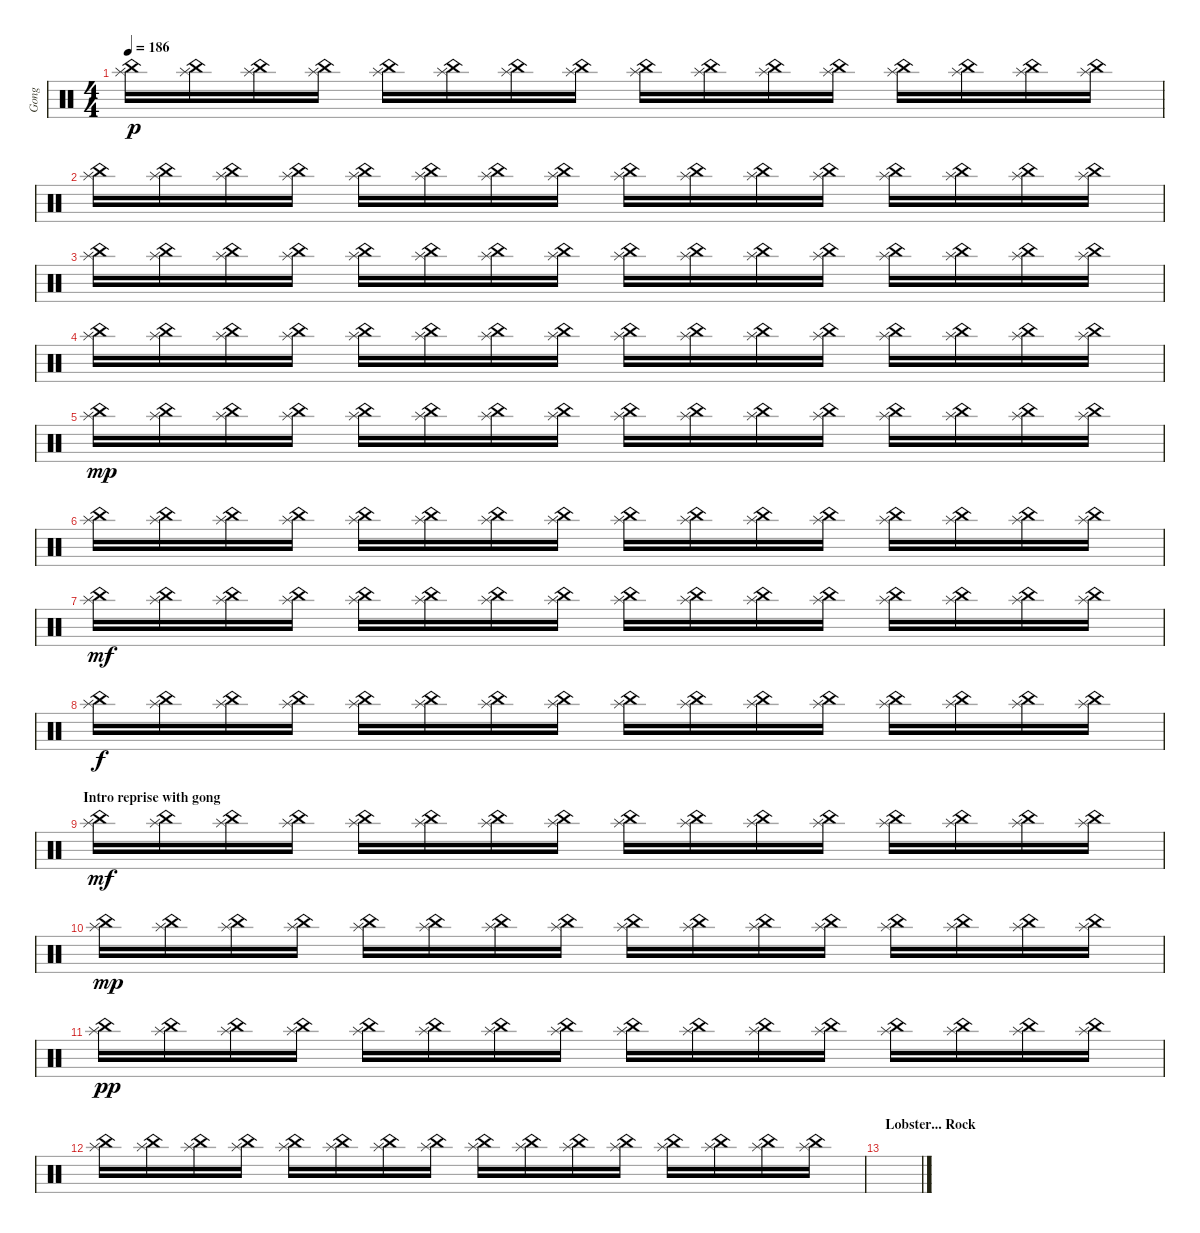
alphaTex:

\track ("Gong" "Gong") {instrument percussion}
\staff {score}
\articulation defaults
\ts (4 4)
\tempo 186
\clef neutral
\ks c
("China (hit)" "Splash (hit)").16{dy p} ("China (hit)" "Splash (hit)").16 ("China (hit)" "Splash (hit)").16 ("China (hit)" "Splash (hit)").16 ("China (hit)" "Splash (hit)").16 ("China (hit)" "Splash (hit)").16 ("China (hit)" "Splash (hit)").16 ("China (hit)" "Splash (hit)").16 ("China (hit)" "Splash (hit)").16 ("China (hit)" "Splash (hit)").16 ("China (hit)" "Splash (hit)").16 ("China (hit)" "Splash (hit)").16 ("China (hit)" "Splash (hit)").16 ("China (hit)" "Splash (hit)").16 ("China (hit)" "Splash (hit)").16 ("China (hit)" "Splash (hit)").16 |
("China (hit)" "Splash (hit)").16 ("China (hit)" "Splash (hit)").16 ("China (hit)" "Splash (hit)").16 ("China (hit)" "Splash (hit)").16 ("China (hit)" "Splash (hit)").16 ("China (hit)" "Splash (hit)").16 ("China (hit)" "Splash (hit)").16 ("China (hit)" "Splash (hit)").16 ("China (hit)" "Splash (hit)").16 ("China (hit)" "Splash (hit)").16 ("China (hit)" "Splash (hit)").16 ("China (hit)" "Splash (hit)").16 ("China (hit)" "Splash (hit)").16 ("China (hit)" "Splash (hit)").16 ("China (hit)" "Splash (hit)").16 ("China (hit)" "Splash (hit)").16 |
("China (hit)" "Splash (hit)").16 ("China (hit)" "Splash (hit)").16 ("China (hit)" "Splash (hit)").16 ("China (hit)" "Splash (hit)").16 ("China (hit)" "Splash (hit)").16 ("China (hit)" "Splash (hit)").16 ("China (hit)" "Splash (hit)").16 ("China (hit)" "Splash (hit)").16 ("China (hit)" "Splash (hit)").16 ("China (hit)" "Splash (hit)").16 ("China (hit)" "Splash (hit)").16 ("China (hit)" "Splash (hit)").16 ("China (hit)" "Splash (hit)").16 ("China (hit)" "Splash (hit)").16 ("China (hit)" "Splash (hit)").16 ("China (hit)" "Splash (hit)").16 |
("China (hit)" "Splash (hit)").16 ("China (hit)" "Splash (hit)").16 ("China (hit)" "Splash (hit)").16 ("China (hit)" "Splash (hit)").16 ("China (hit)" "Splash (hit)").16 ("China (hit)" "Splash (hit)").16 ("China (hit)" "Splash (hit)").16 ("China (hit)" "Splash (hit)").16 ("China (hit)" "Splash (hit)").16 ("China (hit)" "Splash (hit)").16 ("China (hit)" "Splash (hit)").16 ("China (hit)" "Splash (hit)").16 ("China (hit)" "Splash (hit)").16 ("China (hit)" "Splash (hit)").16 ("China (hit)" "Splash (hit)").16 ("China (hit)" "Splash (hit)").16 |
("China (hit)" "Splash (hit)").16{dy mp} ("China (hit)" "Splash (hit)").16 ("China (hit)" "Splash (hit)").16 ("China (hit)" "Splash (hit)").16 ("China (hit)" "Splash (hit)").16 ("China (hit)" "Splash (hit)").16 ("China (hit)" "Splash (hit)").16 ("China (hit)" "Splash (hit)").16 ("China (hit)" "Splash (hit)").16 ("China (hit)" "Splash (hit)").16 ("China (hit)" "Splash (hit)").16 ("China (hit)" "Splash (hit)").16 ("China (hit)" "Splash (hit)").16 ("China (hit)" "Splash (hit)").16 ("China (hit)" "Splash (hit)").16 ("China (hit)" "Splash (hit)").16 |
("China (hit)" "Splash (hit)").16 ("China (hit)" "Splash (hit)").16 ("China (hit)" "Splash (hit)").16 ("China (hit)" "Splash (hit)").16 ("China (hit)" "Splash (hit)").16 ("China (hit)" "Splash (hit)").16 ("China (hit)" "Splash (hit)").16 ("China (hit)" "Splash (hit)").16 ("China (hit)" "Splash (hit)").16 ("China (hit)" "Splash (hit)").16 ("China (hit)" "Splash (hit)").16 ("China (hit)" "Splash (hit)").16 ("China (hit)" "Splash (hit)").16 ("China (hit)" "Splash (hit)").16 ("China (hit)" "Splash (hit)").16 ("China (hit)" "Splash (hit)").16 |
("China (hit)" "Splash (hit)").16{dy mf} ("China (hit)" "Splash (hit)").16 ("China (hit)" "Splash (hit)").16 ("China (hit)" "Splash (hit)").16 ("China (hit)" "Splash (hit)").16 ("China (hit)" "Splash (hit)").16 ("China (hit)" "Splash (hit)").16 ("China (hit)" "Splash (hit)").16 ("China (hit)" "Splash (hit)").16 ("China (hit)" "Splash (hit)").16 ("China (hit)" "Splash (hit)").16 ("China (hit)" "Splash (hit)").16 ("China (hit)" "Splash (hit)").16 ("China (hit)" "Splash (hit)").16 ("China (hit)" "Splash (hit)").16 ("China (hit)" "Splash (hit)").16 |
("China (hit)" "Splash (hit)").16{dy f} ("China (hit)" "Splash (hit)").16 ("China (hit)" "Splash (hit)").16 ("China (hit)" "Splash (hit)").16 ("China (hit)" "Splash (hit)").16 ("China (hit)" "Splash (hit)").16 ("China (hit)" "Splash (hit)").16 ("China (hit)" "Splash (hit)").16 ("China (hit)" "Splash (hit)").16 ("China (hit)" "Splash (hit)").16 ("China (hit)" "Splash (hit)").16 ("China (hit)" "Splash (hit)").16 ("China (hit)" "Splash (hit)").16 ("China (hit)" "Splash (hit)").16 ("China (hit)" "Splash (hit)").16 ("China (hit)" "Splash (hit)").16 |
\section ("" "Intro reprise with gong")
("China (hit)" "Splash (hit)").16{dy mf} ("China (hit)" "Splash (hit)").16 ("China (hit)" "Splash (hit)").16 ("China (hit)" "Splash (hit)").16 ("China (hit)" "Splash (hit)").16 ("China (hit)" "Splash (hit)").16 ("China (hit)" "Splash (hit)").16 ("China (hit)" "Splash (hit)").16 ("China (hit)" "Splash (hit)").16 ("China (hit)" "Splash (hit)").16 ("China (hit)" "Splash (hit)").16 ("China (hit)" "Splash (hit)").16 ("China (hit)" "Splash (hit)").16 ("China (hit)" "Splash (hit)").16 ("China (hit)" "Splash (hit)").16 ("China (hit)" "Splash (hit)").16 |
("China (hit)" "Splash (hit)").16{dy mp} ("China (hit)" "Splash (hit)").16 ("China (hit)" "Splash (hit)").16 ("China (hit)" "Splash (hit)").16 ("China (hit)" "Splash (hit)").16 ("China (hit)" "Splash (hit)").16 ("China (hit)" "Splash (hit)").16 ("China (hit)" "Splash (hit)").16 ("China (hit)" "Splash (hit)").16 ("China (hit)" "Splash (hit)").16 ("China (hit)" "Splash (hit)").16 ("China (hit)" "Splash (hit)").16 ("China (hit)" "Splash (hit)").16 ("China (hit)" "Splash (hit)").16 ("China (hit)" "Splash (hit)").16 ("China (hit)" "Splash (hit)").16 |
("China (hit)" "Splash (hit)").16{dy pp} ("China (hit)" "Splash (hit)").16 ("China (hit)" "Splash (hit)").16 ("China (hit)" "Splash (hit)").16 ("China (hit)" "Splash (hit)").16 ("China (hit)" "Splash (hit)").16 ("China (hit)" "Splash (hit)").16 ("China (hit)" "Splash (hit)").16 ("China (hit)" "Splash (hit)").16 ("China (hit)" "Splash (hit)").16 ("China (hit)" "Splash (hit)").16 ("China (hit)" "Splash (hit)").16 ("China (hit)" "Splash (hit)").16 ("China (hit)" "Splash (hit)").16 ("China (hit)" "Splash (hit)").16 ("China (hit)" "Splash (hit)").16 |
("China (hit)" "Splash (hit)").16 ("China (hit)" "Splash (hit)").16 ("China (hit)" "Splash (hit)").16 ("China (hit)" "Splash (hit)").16 ("China (hit)" "Splash (hit)").16 ("China (hit)" "Splash (hit)").16 ("China (hit)" "Splash (hit)").16 ("China (hit)" "Splash (hit)").16 ("China (hit)" "Splash (hit)").16 ("China (hit)" "Splash (hit)").16 ("China (hit)" "Splash (hit)").16 ("China (hit)" "Splash (hit)").16 ("China (hit)" "Splash (hit)").16 ("China (hit)" "Splash (hit)").16 ("China (hit)" "Splash (hit)").16 ("China (hit)" "Splash (hit)").16 |
\section ("" "Lobster... Rock")
